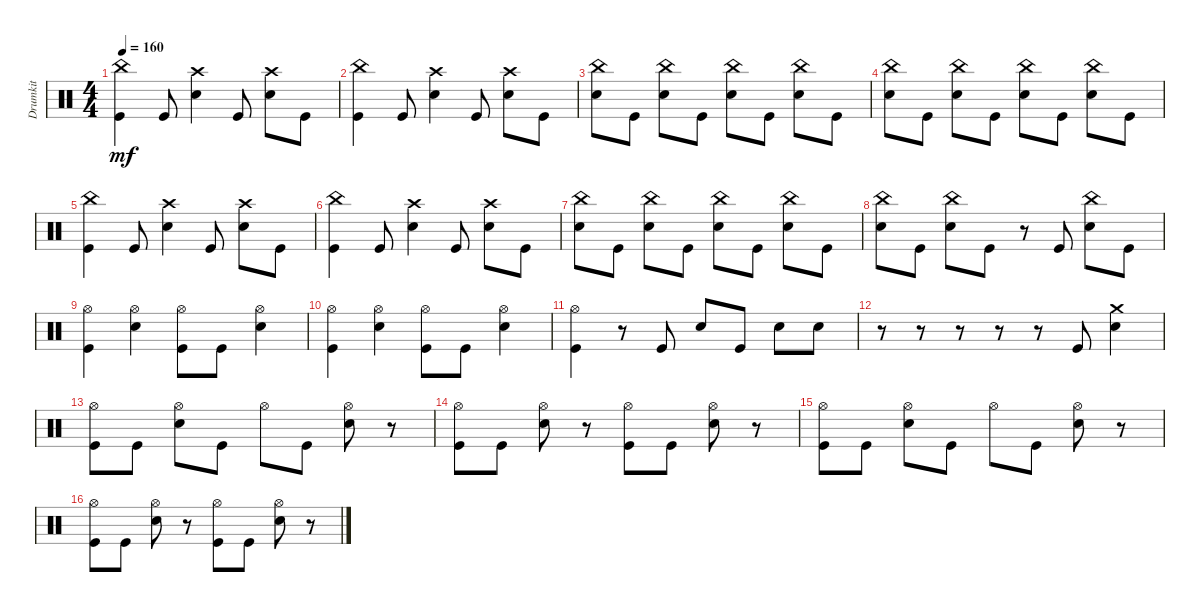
\track ("Drumkit" "Drumkit") {solo instrument percussion}
\staff {score}
\articulation defaults
\ts (4 4)
\tempo 160
\clef neutral
\ks c
("Kick (hit)" "China (hit)").4{dy mf} "Kick (hit)".8 ("Snare (hit) 2" "Crash high (hit)").4 "Kick (hit)".8 ("Snare (hit) 2" "Crash high (hit)").8 "Kick (hit)".8 |
("Kick (hit)" "China (hit)").4 "Kick (hit)".8 ("Snare (hit) 2" "Crash high (hit)").4 "Kick (hit)".8 ("Snare (hit) 2" "Crash high (hit)").8 "Kick (hit)".8 |
("Snare (hit) 2" "China (hit)").8 "Kick (hit)".8 ("Snare (hit) 2" "China (hit)").8 "Kick (hit)".8 ("Snare (hit) 2" "China (hit)").8 "Kick (hit)".8 ("Snare (hit) 2" "China (hit)").8 "Kick (hit)".8 |
("Snare (hit) 2" "China (hit)").8 "Kick (hit)".8 ("Snare (hit) 2" "China (hit)").8 "Kick (hit)".8 ("Snare (hit) 2" "China (hit)").8 "Kick (hit)".8 ("Snare (hit) 2" "China (hit)").8 "Kick (hit)".8 |
("Kick (hit)" "China (hit)").4 "Kick (hit)".8 ("Snare (hit) 2" "Crash high (hit)").4 "Kick (hit)".8 ("Snare (hit) 2" "Crash high (hit)").8 "Kick (hit)".8 |
("Kick (hit)" "China (hit)").4 "Kick (hit)".8 ("Snare (hit) 2" "Crash high (hit)").4 "Kick (hit)".8 ("Snare (hit) 2" "Crash high (hit)").8 "Kick (hit)".8 |
("Snare (hit) 2" "China (hit)").8 "Kick (hit)".8 ("Snare (hit) 2" "China (hit)").8 "Kick (hit)".8 ("Snare (hit) 2" "China (hit)").8 "Kick (hit)".8 ("Snare (hit) 2" "China (hit)").8 "Kick (hit)".8 |
("Snare (hit) 2" "China (hit)").8 "Kick (hit)".8 ("Snare (hit) 2" "China (hit)").8 "Kick (hit)".8 r.8 "Kick (hit)".8 ("Snare (hit) 2" "China (hit)").8 "Kick (hit)".8 |
("Hi-Hat (open)" "Kick (hit)").4 ("Hi-Hat (open)" "Snare (hit) 2").4 ("Kick (hit)" "Hi-Hat (open)").8 "Kick (hit)".8 ("Snare (hit) 2" "Hi-Hat (open)").4 |
("Hi-Hat (open)" "Kick (hit)").4 ("Hi-Hat (open)" "Snare (hit) 2").4 ("Kick (hit)" "Hi-Hat (open)").8 "Kick (hit)".8 ("Snare (hit) 2" "Hi-Hat (open)").4 |
("Hi-Hat (open)" "Kick (hit)").4 r.8 "Kick (hit)".8 "Snare (hit) 2".8 "Kick (hit)".8 "Snare (hit) 2".8 "Snare (hit) 2".8 |
r.8 r.8 r.8 r.8 r.8 "Kick (hit)".8 ("Snare (hit) 2" "Crash medium (hit)").4 |
("Hi-Hat (open)" "Kick (hit)").8 "Kick (hit)".8 ("Hi-Hat (open)" "Snare (hit) 2").8 "Kick (hit)".8 "Hi-Hat (open)".8 "Kick (hit)".8 ("Hi-Hat (open)" "Snare (hit) 2").8 r.8 |
("Hi-Hat (open)" "Kick (hit)").8 "Kick (hit)".8 ("Hi-Hat (open)" "Snare (hit) 2").8 r.8 ("Hi-Hat (open)" "Kick (hit)").8 "Kick (hit)".8 ("Hi-Hat (open)" "Snare (hit) 2").8 r.8 |
("Hi-Hat (open)" "Kick (hit)").8 "Kick (hit)".8 ("Hi-Hat (open)" "Snare (hit) 2").8 "Kick (hit)".8 "Hi-Hat (open)".8 "Kick (hit)".8 ("Hi-Hat (open)" "Snare (hit) 2").8 r.8 |
("Hi-Hat (open)" "Kick (hit)").8 "Kick (hit)".8 ("Hi-Hat (open)" "Snare (hit) 2").8 r.8 ("Hi-Hat (open)" "Kick (hit)").8 "Kick (hit)".8 ("Hi-Hat (open)" "Snare (hit) 2").8 r.8
